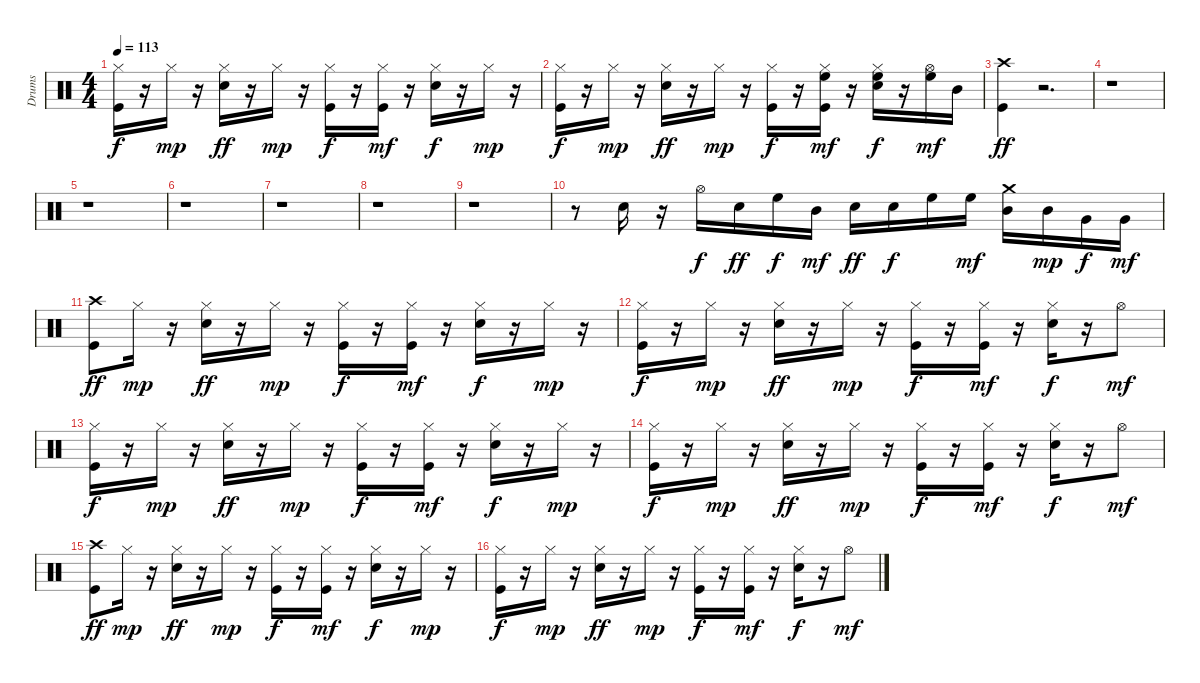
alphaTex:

\track ("Drums" "Drums") {instrument percussion}
\staff {score}
\articulation defaults
\ts (4 4)
\tempo 113
\clef neutral
\ks c
("Hi-Hat (closed)" "Kick (hit)").16{dy f} r.16 "Hi-Hat (closed)".16{dy mp} r.16 ("Electric Snare (hit)" "Hi-Hat (closed)").16{dy ff} r.16 "Hi-Hat (closed)".16{dy mp} r.16 ("Hi-Hat (closed)" "Kick (hit)").16{dy f} r.16 ("Hi-Hat (closed)" "Kick (hit)").16{dy mf} r.16 ("Electric Snare (hit)" "Hi-Hat (closed)").16{dy f} r.16 "Hi-Hat (closed)".16{dy mp} r.16 |
("Hi-Hat (closed)" "Kick (hit)").16{dy f} r.16 "Hi-Hat (closed)".16{dy mp} r.16 ("Electric Snare (hit)" "Hi-Hat (closed)").16{dy ff} r.16 "Hi-Hat (closed)".16{dy mp} r.16 ("Hi-Hat (closed)" "Kick (hit)").16{dy f} r.16 ("Hi-Hat (closed)" "High Floor Tom (hit)" "Kick (hit)").16{dy mf} r.16 ("Electric Snare (hit)" "Hi-Hat (closed)" "High Floor Tom (hit)").16{dy f} r.16 ("Hi-Hat (open)" "High Floor Tom (hit)").16{dy mf} "Mid Tom (hit)".16 |
("Crash high (hit)" "Kick (hit)").4{dy ff} r.2{d} |
r.1 |
r.1 |
r.1 |
r.1 |
r.1 |
r.1 |
r.8 "Electric Snare (hit)".16 r.16 "Hi-Hat (open)".16{dy f} "Electric Snare (hit)".16{dy ff} "High Floor Tom (hit)".16{dy f} "Mid Tom (hit)".16{dy mf} "Electric Snare (hit)".16{dy ff} "Electric Snare (hit)".16{dy f} "High Floor Tom (hit)".16 "High Floor Tom (hit)".16{dy mf} ("Mid Tom (hit)" "Crash medium (hit)").16 "Mid Tom (hit)".16{dy mp} "Very Low Tom (hit)".16{dy f} "Very Low Tom (hit)".16{dy mf} |
("Crash high (hit)" "Kick (hit)").8{dy ff} "Hi-Hat (closed)".16{dy mp} r.16 ("Electric Snare (hit)" "Hi-Hat (closed)").16{dy ff} r.16 "Hi-Hat (closed)".16{dy mp} r.16 ("Hi-Hat (closed)" "Kick (hit)").16{dy f} r.16 ("Hi-Hat (closed)" "Kick (hit)").16{dy mf} r.16 ("Electric Snare (hit)" "Hi-Hat (closed)").16{dy f} r.16 "Hi-Hat (closed)".16{dy mp} r.16 |
("Hi-Hat (closed)" "Kick (hit)").16{dy f} r.16 "Hi-Hat (closed)".16{dy mp} r.16 ("Electric Snare (hit)" "Hi-Hat (closed)").16{dy ff} r.16 "Hi-Hat (closed)".16{dy mp} r.16 ("Hi-Hat (closed)" "Kick (hit)").16{dy f} r.16 ("Hi-Hat (closed)" "Kick (hit)").16{dy mf} r.16 ("Electric Snare (hit)" "Hi-Hat (closed)").16{dy f} r.16 "Hi-Hat (open)".8{dy mf} |
("Hi-Hat (closed)" "Kick (hit)").16{dy f} r.16 "Hi-Hat (closed)".16{dy mp} r.16 ("Electric Snare (hit)" "Hi-Hat (closed)").16{dy ff} r.16 "Hi-Hat (closed)".16{dy mp} r.16 ("Hi-Hat (closed)" "Kick (hit)").16{dy f} r.16 ("Hi-Hat (closed)" "Kick (hit)").16{dy mf} r.16 ("Electric Snare (hit)" "Hi-Hat (closed)").16{dy f} r.16 "Hi-Hat (closed)".16{dy mp} r.16 |
("Hi-Hat (closed)" "Kick (hit)").16{dy f} r.16 "Hi-Hat (closed)".16{dy mp} r.16 ("Electric Snare (hit)" "Hi-Hat (closed)").16{dy ff} r.16 "Hi-Hat (closed)".16{dy mp} r.16 ("Hi-Hat (closed)" "Kick (hit)").16{dy f} r.16 ("Hi-Hat (closed)" "Kick (hit)").16{dy mf} r.16 ("Electric Snare (hit)" "Hi-Hat (closed)").16{dy f} r.16 "Hi-Hat (open)".8{dy mf} |
("Crash high (hit)" "Kick (hit)").8{dy ff} "Hi-Hat (closed)".16{dy mp} r.16 ("Electric Snare (hit)" "Hi-Hat (closed)").16{dy ff} r.16 "Hi-Hat (closed)".16{dy mp} r.16 ("Hi-Hat (closed)" "Kick (hit)").16{dy f} r.16 ("Hi-Hat (closed)" "Kick (hit)").16{dy mf} r.16 ("Electric Snare (hit)" "Hi-Hat (closed)").16{dy f} r.16 "Hi-Hat (closed)".16{dy mp} r.16 |
("Hi-Hat (closed)" "Kick (hit)").16{dy f} r.16 "Hi-Hat (closed)".16{dy mp} r.16 ("Electric Snare (hit)" "Hi-Hat (closed)").16{dy ff} r.16 "Hi-Hat (closed)".16{dy mp} r.16 ("Hi-Hat (closed)" "Kick (hit)").16{dy f} r.16 ("Hi-Hat (closed)" "Kick (hit)").16{dy mf} r.16 ("Electric Snare (hit)" "Hi-Hat (closed)").16{dy f} r.16 "Hi-Hat (open)".8{dy mf}
